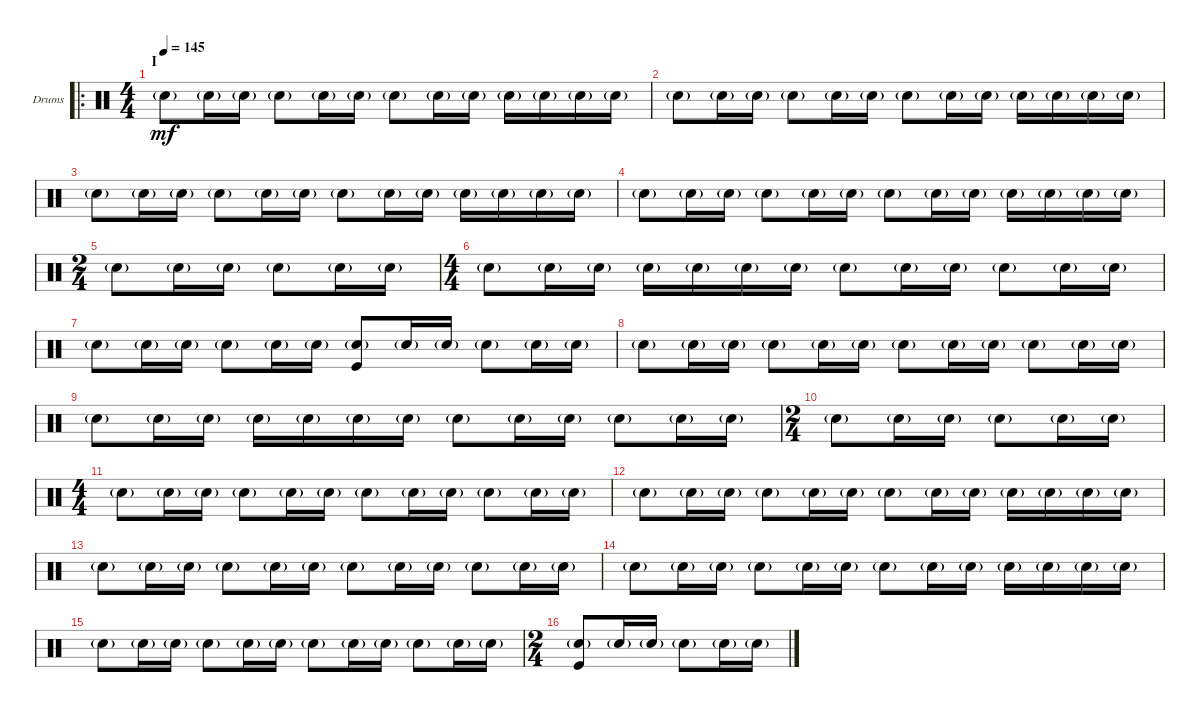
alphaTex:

\defaultSystemsLayout 4
\bracketExtendMode groupsimilarinstruments
\firstSystemTrackNameOrientation horizontal
\otherSystemsTrackNameOrientation horizontal
\track ("Drums" "Drums") {instrument percussion}
\staff {score}
\articulation defaults
\ro
\ts (4 4)
\section ("" "I")
\tempo 145
\clef neutral
\ks c "Snare (hit) 2"{g}.8{dy mf} "Snare (hit) 2"{g}.16 "Snare (hit) 2"{g}.16 "Snare (hit) 2"{g}.8 "Snare (hit) 2"{g}.16 "Snare (hit) 2"{g}.16 "Snare (hit) 2"{g}.8 "Snare (hit) 2"{g}.16 "Snare (hit) 2"{g}.16 "Snare (hit) 2"{g}.16 "Snare (hit) 2"{g}.16 "Snare (hit) 2"{g}.16 "Snare (hit) 2"{g}.16
|
"Snare (hit) 2"{g}.8 "Snare (hit) 2"{g}.16 "Snare (hit) 2"{g}.16 "Snare (hit) 2"{g}.8 "Snare (hit) 2"{g}.16 "Snare (hit) 2"{g}.16 "Snare (hit) 2"{g}.8 "Snare (hit) 2"{g}.16 "Snare (hit) 2"{g}.16 "Snare (hit) 2"{g}.16 "Snare (hit) 2"{g}.16 "Snare (hit) 2"{g}.16 "Snare (hit) 2"{g}.16 |
"Snare (hit) 2"{g}.8 "Snare (hit) 2"{g}.16 "Snare (hit) 2"{g}.16 "Snare (hit) 2"{g}.8 "Snare (hit) 2"{g}.16 "Snare (hit) 2"{g}.16 "Snare (hit) 2"{g}.8 "Snare (hit) 2"{g}.16 "Snare (hit) 2"{g}.16 "Snare (hit) 2"{g}.16 "Snare (hit) 2"{g}.16 "Snare (hit) 2"{g}.16 "Snare (hit) 2"{g}.16 |
"Snare (hit) 2"{g}.8 "Snare (hit) 2"{g}.16 "Snare (hit) 2"{g}.16 "Snare (hit) 2"{g}.8 "Snare (hit) 2"{g}.16 "Snare (hit) 2"{g}.16 "Snare (hit) 2"{g}.8 "Snare (hit) 2"{g}.16 "Snare (hit) 2"{g}.16 "Snare (hit) 2"{g}.16 "Snare (hit) 2"{g}.16 "Snare (hit) 2"{g}.16 "Snare (hit) 2"{g}.16 |
\ts (2 4)
"Snare (hit) 2"{g}.8 "Snare (hit) 2"{g}.16 "Snare (hit) 2"{g}.16 "Snare (hit) 2"{g}.8 "Snare (hit) 2"{g}.16 "Snare (hit) 2"{g}.16 |
\ts (4 4)
"Snare (hit) 2"{g}.8 "Snare (hit) 2"{g}.16 "Snare (hit) 2"{g}.16 "Snare (hit) 2"{g}.16 "Snare (hit) 2"{g}.16 "Snare (hit) 2"{g}.16 "Snare (hit) 2"{g}.16 "Snare (hit) 2"{g}.8 "Snare (hit) 2"{g}.16 "Snare (hit) 2"{g}.16 "Snare (hit) 2"{g}.8 "Snare (hit) 2"{g}.16 "Snare (hit) 2"{g}.16 |
"Snare (hit) 2"{g}.8 "Snare (hit) 2"{g}.16 "Snare (hit) 2"{g}.16 "Snare (hit) 2"{g}.8 "Snare (hit) 2"{g}.16 "Snare (hit) 2"{g}.16 ("Snare (hit) 2"{g} "Kick (hit)").8 "Snare (hit) 2"{g}.16 "Snare (hit) 2"{g}.16 "Snare (hit) 2"{g}.8 "Snare (hit) 2"{g}.16 "Snare (hit) 2"{g}.16 |
"Snare (hit) 2"{g}.8 "Snare (hit) 2"{g}.16 "Snare (hit) 2"{g}.16 "Snare (hit) 2"{g}.8 "Snare (hit) 2"{g}.16 "Snare (hit) 2"{g}.16 "Snare (hit) 2"{g}.8 "Snare (hit) 2"{g}.16 "Snare (hit) 2"{g}.16 "Snare (hit) 2"{g}.8 "Snare (hit) 2"{g}.16 "Snare (hit) 2"{g}.16 |
"Snare (hit) 2"{g}.8 "Snare (hit) 2"{g}.16 "Snare (hit) 2"{g}.16 "Snare (hit) 2"{g}.16 "Snare (hit) 2"{g}.16 "Snare (hit) 2"{g}.16 "Snare (hit) 2"{g}.16 "Snare (hit) 2"{g}.8 "Snare (hit) 2"{g}.16 "Snare (hit) 2"{g}.16 "Snare (hit) 2"{g}.8 "Snare (hit) 2"{g}.16 "Snare (hit) 2"{g}.16 |
\ts (2 4)
"Snare (hit) 2"{g}.8 "Snare (hit) 2"{g}.16 "Snare (hit) 2"{g}.16 "Snare (hit) 2"{g}.8 "Snare (hit) 2"{g}.16 "Snare (hit) 2"{g}.16 |
\ts (4 4)
"Snare (hit) 2"{g}.8 "Snare (hit) 2"{g}.16 "Snare (hit) 2"{g}.16 "Snare (hit) 2"{g}.8 "Snare (hit) 2"{g}.16 "Snare (hit) 2"{g}.16 "Snare (hit) 2"{g}.8 "Snare (hit) 2"{g}.16 "Snare (hit) 2"{g}.16 "Snare (hit) 2"{g}.8 "Snare (hit) 2"{g}.16 "Snare (hit) 2"{g}.16 |
"Snare (hit) 2"{g}.8 "Snare (hit) 2"{g}.16 "Snare (hit) 2"{g}.16 "Snare (hit) 2"{g}.8 "Snare (hit) 2"{g}.16 "Snare (hit) 2"{g}.16 "Snare (hit) 2"{g}.8 "Snare (hit) 2"{g}.16 "Snare (hit) 2"{g}.16 "Snare (hit) 2"{g}.16 "Snare (hit) 2"{g}.16 "Snare (hit) 2"{g}.16 "Snare (hit) 2"{g}.16 |
"Snare (hit) 2"{g}.8 "Snare (hit) 2"{g}.16 "Snare (hit) 2"{g}.16 "Snare (hit) 2"{g}.8 "Snare (hit) 2"{g}.16 "Snare (hit) 2"{g}.16 "Snare (hit) 2"{g}.8 "Snare (hit) 2"{g}.16 "Snare (hit) 2"{g}.16 "Snare (hit) 2"{g}.8 "Snare (hit) 2"{g}.16 "Snare (hit) 2"{g}.16 |
"Snare (hit) 2"{g}.8 "Snare (hit) 2"{g}.16 "Snare (hit) 2"{g}.16 "Snare (hit) 2"{g}.8 "Snare (hit) 2"{g}.16 "Snare (hit) 2"{g}.16 "Snare (hit) 2"{g}.8 "Snare (hit) 2"{g}.16 "Snare (hit) 2"{g}.16 "Snare (hit) 2"{g}.16 "Snare (hit) 2"{g}.16 "Snare (hit) 2"{g}.16 "Snare (hit) 2"{g}.16 |
"Snare (hit) 2"{g}.8 "Snare (hit) 2"{g}.16 "Snare (hit) 2"{g}.16 "Snare (hit) 2"{g}.8 "Snare (hit) 2"{g}.16 "Snare (hit) 2"{g}.16 "Snare (hit) 2"{g}.8 "Snare (hit) 2"{g}.16 "Snare (hit) 2"{g}.16 "Snare (hit) 2"{g}.8 "Snare (hit) 2"{g}.16 "Snare (hit) 2"{g}.16 |
\ts (2 4)
("Snare (hit) 2"{g} "Kick (hit)").8 "Snare (hit) 2"{g}.16 "Snare (hit) 2"{g}.16 "Snare (hit) 2"{g}.8 "Snare (hit) 2"{g}.16 "Snare (hit) 2"{g}.16
